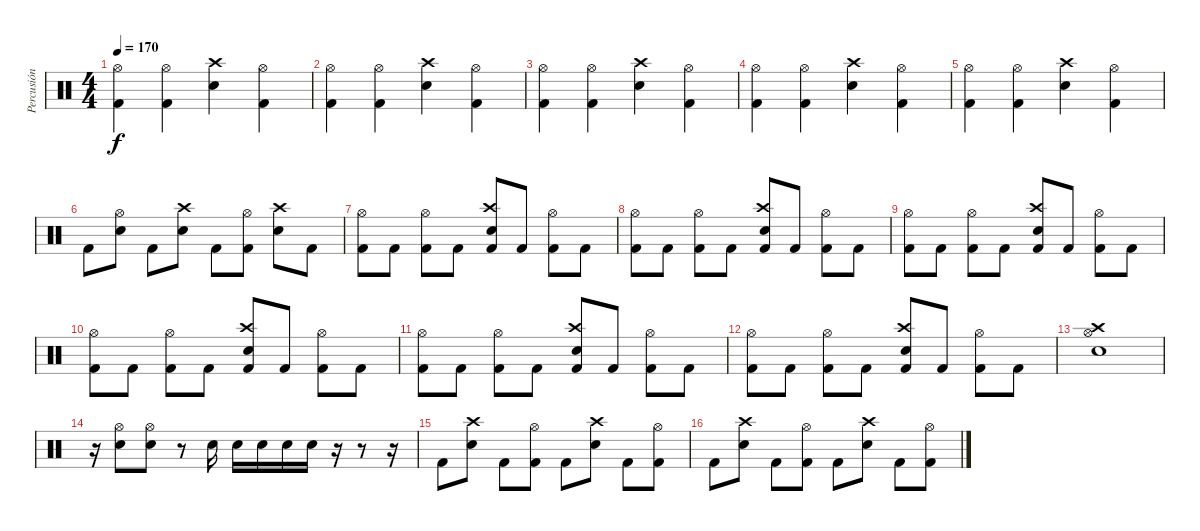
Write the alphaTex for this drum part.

\track ("Percusión" "Percusión") {instrument percussion}
\staff {score}
\articulation defaults
\ts (4 4)
\tempo 170
\clef neutral
\ks c
("Hi-Hat (open)" "Kick (hit) 2").4{dy f} ("Hi-Hat (open)" "Kick (hit) 2").4 ("Crash high (hit)" "Electric Snare (hit)").4 ("Hi-Hat (open)" "Kick (hit) 2").4 |
("Hi-Hat (open)" "Kick (hit) 2").4 ("Hi-Hat (open)" "Kick (hit) 2").4 ("Crash high (hit)" "Electric Snare (hit)").4 ("Hi-Hat (open)" "Kick (hit) 2").4 |
("Hi-Hat (open)" "Kick (hit) 2").4 ("Hi-Hat (open)" "Kick (hit) 2").4 ("Crash high (hit)" "Electric Snare (hit)").4 ("Hi-Hat (open)" "Kick (hit) 2").4 |
("Hi-Hat (open)" "Kick (hit) 2").4 ("Hi-Hat (open)" "Kick (hit) 2").4 ("Crash high (hit)" "Electric Snare (hit)").4 ("Hi-Hat (open)" "Kick (hit) 2").4 |
("Hi-Hat (open)" "Kick (hit) 2").4 ("Hi-Hat (open)" "Kick (hit) 2").4 ("Crash high (hit)" "Electric Snare (hit)").4 ("Hi-Hat (open)" "Kick (hit) 2").4 |
"Kick (hit) 2".8 ("Hi-Hat (open)" "Electric Snare (hit)").8 "Kick (hit) 2".8 ("Crash high (hit)" "Electric Snare (hit)").8 "Kick (hit) 2".8 ("Hi-Hat (open)" "Kick (hit) 2").8 ("Crash high (hit)" "Electric Snare (hit)").8 "Kick (hit) 2".8 |
("Hi-Hat (open)" "Kick (hit) 2").8 "Kick (hit) 2".8 ("Hi-Hat (open)" "Kick (hit) 2").8 "Kick (hit) 2".8 ("Crash high (hit)" "Electric Snare (hit)" "Kick (hit) 2").8 "Kick (hit) 2".8 ("Hi-Hat (open)" "Kick (hit) 2").8 "Kick (hit) 2".8 |
("Hi-Hat (open)" "Kick (hit) 2").8 "Kick (hit) 2".8 ("Hi-Hat (open)" "Kick (hit) 2").8 "Kick (hit) 2".8 ("Crash high (hit)" "Electric Snare (hit)" "Kick (hit) 2").8 "Kick (hit) 2".8 ("Hi-Hat (open)" "Kick (hit) 2").8 "Kick (hit) 2".8 |
("Hi-Hat (open)" "Kick (hit) 2").8 "Kick (hit) 2".8 ("Hi-Hat (open)" "Kick (hit) 2").8 "Kick (hit) 2".8 ("Crash high (hit)" "Electric Snare (hit)" "Kick (hit) 2").8 "Kick (hit) 2".8 ("Hi-Hat (open)" "Kick (hit) 2").8 "Kick (hit) 2".8 |
("Hi-Hat (open)" "Kick (hit) 2").8 "Kick (hit) 2".8 ("Hi-Hat (open)" "Kick (hit) 2").8 "Kick (hit) 2".8 ("Crash high (hit)" "Electric Snare (hit)" "Kick (hit) 2").8 "Kick (hit) 2".8 ("Hi-Hat (open)" "Kick (hit) 2").8 "Kick (hit) 2".8 |
("Hi-Hat (open)" "Kick (hit) 2").8 "Kick (hit) 2".8 ("Hi-Hat (open)" "Kick (hit) 2").8 "Kick (hit) 2".8 ("Crash high (hit)" "Electric Snare (hit)" "Kick (hit) 2").8 "Kick (hit) 2".8 ("Hi-Hat (open)" "Kick (hit) 2").8 "Kick (hit) 2".8 |
("Hi-Hat (open)" "Kick (hit) 2").8 "Kick (hit) 2".8 ("Hi-Hat (open)" "Kick (hit) 2").8 "Kick (hit) 2".8 ("Crash high (hit)" "Electric Snare (hit)" "Kick (hit) 2").8 "Kick (hit) 2".8 ("Hi-Hat (open)" "Kick (hit) 2").8 "Kick (hit) 2".8 |
("Crash high (hit)" "Hi-Hat (open)" "Electric Snare (hit)").1 |
r.16 ("Hi-Hat (open)" "Electric Snare (hit)").8 ("Hi-Hat (open)" "Electric Snare (hit)").8 r.8 "Electric Snare (hit)".16 "Electric Snare (hit)".16 "Electric Snare (hit)".16 "Electric Snare (hit)".16 "Electric Snare (hit)".16 r.16 r.8 r.16 |
"Kick (hit) 2".8 ("Crash high (hit)" "Electric Snare (hit)").8 "Kick (hit) 2".8 ("Hi-Hat (open)" "Kick (hit) 2").8 "Kick (hit) 2".8 ("Crash high (hit)" "Electric Snare (hit)").8 "Kick (hit) 2".8 ("Hi-Hat (open)" "Kick (hit) 2").8 |
"Kick (hit) 2".8 ("Crash high (hit)" "Electric Snare (hit)").8 "Kick (hit) 2".8 ("Hi-Hat (open)" "Kick (hit) 2").8 "Kick (hit) 2".8 ("Crash high (hit)" "Electric Snare (hit)").8 "Kick (hit) 2".8 ("Hi-Hat (open)" "Kick (hit) 2").8
